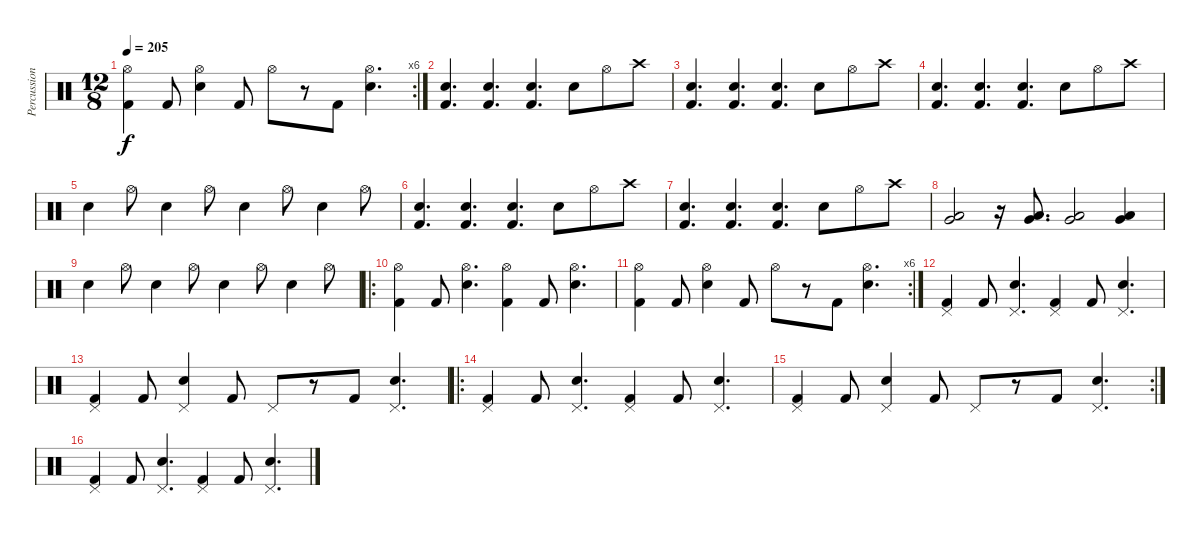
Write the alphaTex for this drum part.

\track ("Percussion" "Percussion") {instrument percussion}
\staff {score}
\articulation defaults
\rc 6
\ts (12 8)
\tempo 205
\clef neutral
\ks c
("Hi-Hat (open)" "Kick (hit) 2").4{dy f} "Kick (hit) 2".8 ("Hi-Hat (open)" "Snare (hit) 2").4 "Kick (hit) 2".8 "Hi-Hat (open)".8 r.8 "Kick (hit) 2".8 ("Hi-Hat (open)" "Snare (hit) 2").4{d} |
("Snare (hit) 2" "Kick (hit) 2").4{d} ("Snare (hit) 2" "Kick (hit) 2").4{d} ("Snare (hit) 2" "Kick (hit) 2").4{d} "Snare (hit) 2".8 "Hi-Hat (open)".8 "Crash high (hit)".8 |
("Snare (hit) 2" "Kick (hit) 2").4{d} ("Snare (hit) 2" "Kick (hit) 2").4{d} ("Snare (hit) 2" "Kick (hit) 2").4{d} "Snare (hit) 2".8 "Hi-Hat (open)".8 "Crash high (hit)".8 |
("Snare (hit) 2" "Kick (hit) 2").4{d} ("Snare (hit) 2" "Kick (hit) 2").4{d} ("Snare (hit) 2" "Kick (hit) 2").4{d} "Snare (hit) 2".8 "Hi-Hat (open)".8 "Crash high (hit)".8 |
"Snare (hit) 2".4 "Hi-Hat (open)".8 "Snare (hit) 2".4 "Hi-Hat (open)".8 "Snare (hit) 2".4 "Hi-Hat (open)".8 "Snare (hit) 2".4 "Hi-Hat (open)".8 |
("Snare (hit) 2" "Kick (hit) 2").4{d} ("Snare (hit) 2" "Kick (hit) 2").4{d} ("Snare (hit) 2" "Kick (hit) 2").4{d} "Snare (hit) 2".8 "Hi-Hat (open)".8 "Crash high (hit)".8 |
("Snare (hit) 2" "Kick (hit) 2").4{d} ("Snare (hit) 2" "Kick (hit) 2").4{d} ("Snare (hit) 2" "Kick (hit) 2").4{d} "Snare (hit) 2".8 "Hi-Hat (open)".8 "Crash high (hit)".8 |
("Very Low Tom (hit)" "Low Floor Tom (hit)").2 r.16 ("Very Low Tom (hit)" "Low Floor Tom (hit)").8{d} ("Very Low Tom (hit)" "Low Floor Tom (hit)").2 ("Very Low Tom (hit)" "Low Floor Tom (hit)").4 |
"Snare (hit) 2".4 "Hi-Hat (open)".8 "Snare (hit) 2".4 "Hi-Hat (open)".8 "Snare (hit) 2".4 "Hi-Hat (open)".8 "Snare (hit) 2".4 "Hi-Hat (open)".8 |
\ro
("Hi-Hat (open)" "Kick (hit) 2").4 "Kick (hit) 2".8 ("Hi-Hat (open)" "Snare (hit) 2").4{d} ("Hi-Hat (open)" "Kick (hit) 2").4 "Kick (hit) 2".8 ("Hi-Hat (open)" "Snare (hit) 2").4{d} |
\rc 6
("Hi-Hat (open)" "Kick (hit) 2").4 "Kick (hit) 2".8 ("Hi-Hat (open)" "Snare (hit) 2").4 "Kick (hit) 2".8 "Hi-Hat (open)".8 r.8 "Kick (hit) 2".8 ("Hi-Hat (open)" "Snare (hit) 2").4{d} |
("Pedal Hi-Hat (hit)" "Kick (hit) 2").4 "Kick (hit) 2".8 ("Pedal Hi-Hat (hit)" "Snare (hit) 2").4{d} ("Pedal Hi-Hat (hit)" "Kick (hit) 2").4 "Kick (hit) 2".8 ("Pedal Hi-Hat (hit)" "Snare (hit) 2").4{d} |
("Pedal Hi-Hat (hit)" "Kick (hit) 2").4 "Kick (hit) 2".8 ("Pedal Hi-Hat (hit)" "Snare (hit) 2").4 "Kick (hit) 2".8 "Pedal Hi-Hat (hit)".8 r.8 "Kick (hit) 2".8 ("Pedal Hi-Hat (hit)" "Snare (hit) 2").4{d} |
\ro
("Pedal Hi-Hat (hit)" "Kick (hit) 2").4 "Kick (hit) 2".8 ("Pedal Hi-Hat (hit)" "Snare (hit) 2").4{d} ("Pedal Hi-Hat (hit)" "Kick (hit) 2").4 "Kick (hit) 2".8 ("Pedal Hi-Hat (hit)" "Snare (hit) 2").4{d} |
\rc 2
("Pedal Hi-Hat (hit)" "Kick (hit) 2").4 "Kick (hit) 2".8 ("Pedal Hi-Hat (hit)" "Snare (hit) 2").4 "Kick (hit) 2".8 "Pedal Hi-Hat (hit)".8 r.8 "Kick (hit) 2".8 ("Pedal Hi-Hat (hit)" "Snare (hit) 2").4{d} |
("Pedal Hi-Hat (hit)" "Kick (hit) 2").4 "Kick (hit) 2".8 ("Pedal Hi-Hat (hit)" "Snare (hit) 2").4{d} ("Pedal Hi-Hat (hit)" "Kick (hit) 2").4 "Kick (hit) 2".8 ("Pedal Hi-Hat (hit)" "Snare (hit) 2").4{d}
